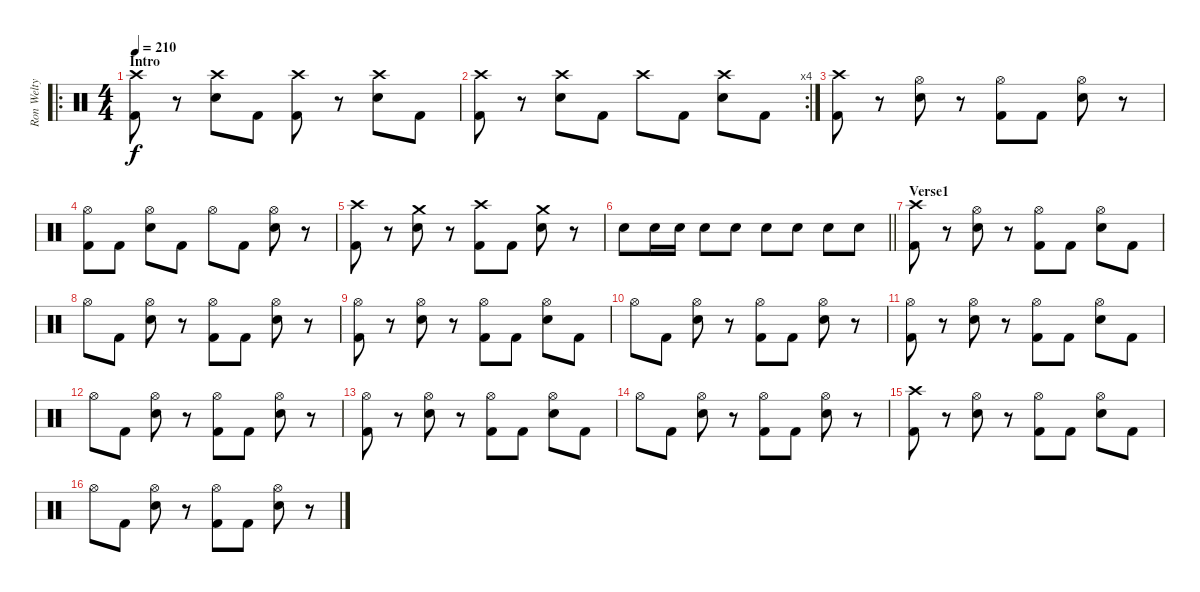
\track ("Ron Welty" "Ron Welty") {instrument percussion}
\staff {score}
\articulation defaults
\ro
\ts (4 4)
\section ("" "Intro")
\tempo 210
\clef neutral
\ks c
("Crash high (hit)" "Kick (hit) 2").8{dy f} r.8 ("Crash high (hit)" "Electric Snare (hit)").8 "Kick (hit) 2".8 ("Crash high (hit)" "Kick (hit) 2").8 r.8 ("Crash high (hit)" "Electric Snare (hit)").8 "Kick (hit) 2".8 |
\rc 4
("Crash high (hit)" "Kick (hit) 2").8 r.8 ("Crash high (hit)" "Electric Snare (hit)").8 "Kick (hit) 2".8 "Crash high (hit)".8 "Kick (hit) 2".8 ("Crash high (hit)" "Electric Snare (hit)").8 "Kick (hit) 2".8 |
("Crash high (hit)" "Kick (hit) 2").8 r.8 ("Hi-Hat (open)" "Electric Snare (hit)").8 r.8 ("Hi-Hat (open)" "Kick (hit) 2").8 "Kick (hit) 2".8 ("Hi-Hat (open)" "Electric Snare (hit)").8 r.8 |
("Hi-Hat (open)" "Kick (hit) 2").8 "Kick (hit) 2".8 ("Hi-Hat (open)" "Electric Snare (hit)").8 "Kick (hit) 2".8 "Hi-Hat (open)".8 "Kick (hit) 2".8 ("Hi-Hat (open)" "Electric Snare (hit)").8 r.8 |
("Crash high (hit)" "Kick (hit) 2").8 r.8 ("Crash medium (hit)" "Electric Snare (hit)").8 r.8 ("Crash high (hit)" "Kick (hit) 2").8 "Kick (hit) 2".8 ("Crash medium (hit)" "Electric Snare (hit)").8 r.8 |
\barLineRight lightlight "Electric Snare (hit)".8 "Electric Snare (hit)".16 "Electric Snare (hit)".16 "Electric Snare (hit)".8 "Electric Snare (hit)".8 "Electric Snare (hit)".8 "Electric Snare (hit)".8 "Electric Snare (hit)".8 "Electric Snare (hit)".8
|
\section ("" "Verse1")
("Crash high (hit)" "Kick (hit) 2").8 r.8 ("Hi-Hat (open)" "Electric Snare (hit)").8 r.8 ("Hi-Hat (open)" "Kick (hit) 2").8 "Kick (hit) 2".8 ("Hi-Hat (open)" "Electric Snare (hit)").8 "Kick (hit) 2".8 |
"Hi-Hat (open)".8 "Kick (hit) 2".8 ("Hi-Hat (open)" "Electric Snare (hit)").8 r.8 ("Hi-Hat (open)" "Kick (hit) 2").8 "Kick (hit) 2".8 ("Hi-Hat (open)" "Electric Snare (hit)").8 r.8 |
("Hi-Hat (open)" "Kick (hit) 2").8 r.8 ("Hi-Hat (open)" "Electric Snare (hit)").8 r.8 ("Hi-Hat (open)" "Kick (hit) 2").8 "Kick (hit) 2".8 ("Hi-Hat (open)" "Electric Snare (hit)").8 "Kick (hit) 2".8 |
"Hi-Hat (open)".8 "Kick (hit) 2".8 ("Hi-Hat (open)" "Electric Snare (hit)").8 r.8 ("Hi-Hat (open)" "Kick (hit) 2").8 "Kick (hit) 2".8 ("Hi-Hat (open)" "Electric Snare (hit)").8 r.8 |
("Hi-Hat (open)" "Kick (hit) 2").8 r.8 ("Hi-Hat (open)" "Electric Snare (hit)").8 r.8 ("Hi-Hat (open)" "Kick (hit) 2").8 "Kick (hit) 2".8 ("Hi-Hat (open)" "Electric Snare (hit)").8 "Kick (hit) 2".8 |
"Hi-Hat (open)".8 "Kick (hit) 2".8 ("Hi-Hat (open)" "Electric Snare (hit)").8 r.8 ("Hi-Hat (open)" "Kick (hit) 2").8 "Kick (hit) 2".8 ("Hi-Hat (open)" "Electric Snare (hit)").8 r.8 |
("Hi-Hat (open)" "Kick (hit) 2").8 r.8 ("Hi-Hat (open)" "Electric Snare (hit)").8 r.8 ("Hi-Hat (open)" "Kick (hit) 2").8 "Kick (hit) 2".8 ("Hi-Hat (open)" "Electric Snare (hit)").8 "Kick (hit) 2".8 |
"Hi-Hat (open)".8 "Kick (hit) 2".8 ("Hi-Hat (open)" "Electric Snare (hit)").8 r.8 ("Hi-Hat (open)" "Kick (hit) 2").8 "Kick (hit) 2".8 ("Hi-Hat (open)" "Electric Snare (hit)").8 r.8 |
("Crash high (hit)" "Kick (hit) 2").8 r.8 ("Hi-Hat (open)" "Electric Snare (hit)").8 r.8 ("Hi-Hat (open)" "Kick (hit) 2").8 "Kick (hit) 2".8 ("Hi-Hat (open)" "Electric Snare (hit)").8 "Kick (hit) 2".8 |
"Hi-Hat (open)".8 "Kick (hit) 2".8 ("Hi-Hat (open)" "Electric Snare (hit)").8 r.8 ("Hi-Hat (open)" "Kick (hit) 2").8 "Kick (hit) 2".8 ("Hi-Hat (open)" "Electric Snare (hit)").8 r.8
